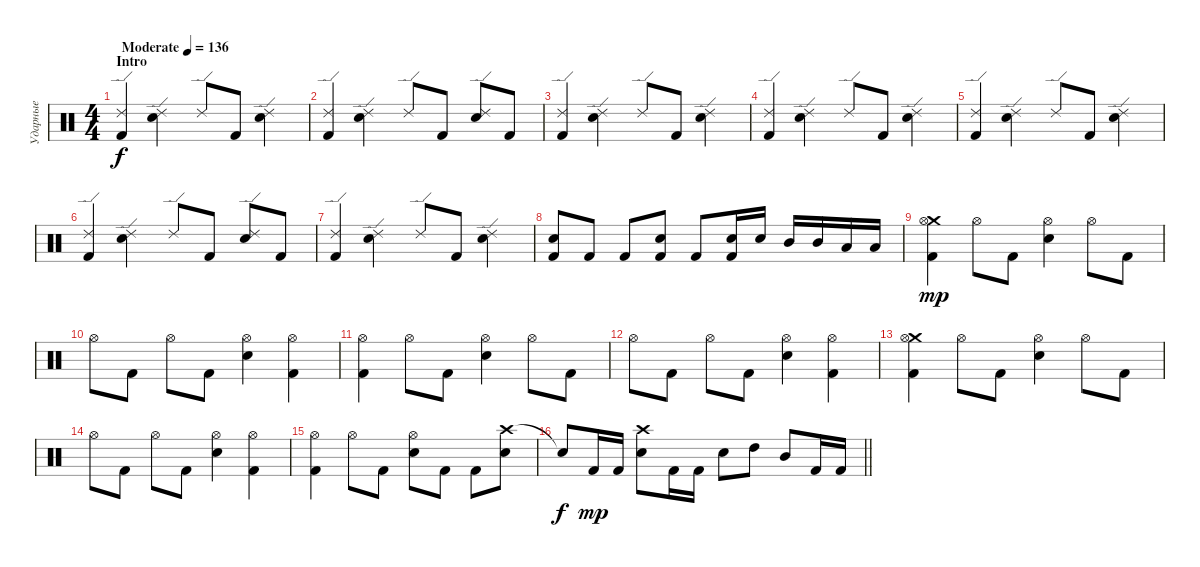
\track ("Ударные" "Ударные") {instrument percussion}
\staff {score}
\articulation defaults
\ts (4 4)
\section ("" "Intro")
\tempo (136 "Moderate")
\clef neutral
\ks c
("Ride (edge) 2" "Kick (hit) 2").4{dy f} ("Ride (edge) 2" "Electric Snare (hit)").4 "Ride (edge) 2".8 "Kick (hit) 2".8 ("Ride (edge) 2" "Electric Snare (hit)").4 |
("Ride (edge) 2" "Kick (hit) 2").4 ("Ride (edge) 2" "Electric Snare (hit)").4 "Ride (edge) 2".8 "Kick (hit) 2".8 ("Ride (edge) 2" "Electric Snare (hit)").8 "Kick (hit) 2".8 |
("Ride (edge) 2" "Kick (hit) 2").4 ("Ride (edge) 2" "Electric Snare (hit)").4 "Ride (edge) 2".8 "Kick (hit) 2".8 ("Ride (edge) 2" "Electric Snare (hit)").4 |
("Ride (edge) 2" "Kick (hit) 2").4 ("Ride (edge) 2" "Electric Snare (hit)").4 "Ride (edge) 2".8 "Kick (hit) 2".8 ("Ride (edge) 2" "Electric Snare (hit)").4 |
("Ride (edge) 2" "Kick (hit) 2").4 ("Ride (edge) 2" "Electric Snare (hit)").4 "Ride (edge) 2".8 "Kick (hit) 2".8 ("Ride (edge) 2" "Electric Snare (hit)").4 |
("Ride (edge) 2" "Kick (hit) 2").4 ("Ride (edge) 2" "Electric Snare (hit)").4 "Ride (edge) 2".8 "Kick (hit) 2".8 ("Ride (edge) 2" "Electric Snare (hit)").8 "Kick (hit) 2".8 |
("Ride (edge) 2" "Kick (hit) 2").4 ("Ride (edge) 2" "Electric Snare (hit)").4 "Ride (edge) 2".8 "Kick (hit) 2".8 ("Ride (edge) 2" "Electric Snare (hit)").4 |
("Snare (hit) 2" "Kick (hit) 2").8 "Kick (hit) 2".8 "Kick (hit) 2".8 ("Snare (hit) 2" "Kick (hit) 2").8 "Kick (hit) 2".8 ("Snare (hit) 2" "Kick (hit) 2").16 "Snare (hit) 2".16 "Mid Tom (hit)".16 "Mid Tom (hit)".16 "Low Tom (hit)".16 "Low Tom (hit)".16 |
("Kick (hit) 2" "Crash medium (hit)" "Hi-Hat (open)").4{dy mp} "Hi-Hat (open)".8 "Kick (hit) 2".8 ("Snare (hit) 2" "Hi-Hat (open)").4 "Hi-Hat (open)".8 "Kick (hit) 2".8 |
"Hi-Hat (open)".8 "Kick (hit) 2".8 "Hi-Hat (open)".8 "Kick (hit) 2".8 ("Snare (hit) 2" "Hi-Hat (open)").4 ("Kick (hit) 2" "Hi-Hat (open)").4 |
("Kick (hit) 2" "Hi-Hat (open)").4 "Hi-Hat (open)".8 "Kick (hit) 2".8 ("Snare (hit) 2" "Hi-Hat (open)").4 "Hi-Hat (open)".8 "Kick (hit) 2".8 |
"Hi-Hat (open)".8 "Kick (hit) 2".8 "Hi-Hat (open)".8 "Kick (hit) 2".8 ("Snare (hit) 2" "Hi-Hat (open)").4 ("Kick (hit) 2" "Hi-Hat (open)").4 |
("Kick (hit) 2" "Crash medium (hit)" "Hi-Hat (open)").4 "Hi-Hat (open)".8 "Kick (hit) 2".8 ("Snare (hit) 2" "Hi-Hat (open)").4 "Hi-Hat (open)".8 "Kick (hit) 2".8 |
"Hi-Hat (open)".8 "Kick (hit) 2".8 "Hi-Hat (open)".8 "Kick (hit) 2".8 ("Snare (hit) 2" "Hi-Hat (open)").4 ("Kick (hit) 2" "Hi-Hat (open)").4 |
("Kick (hit) 2" "Hi-Hat (open)").4 "Hi-Hat (open)".8 "Kick (hit) 2".8 ("Snare (hit) 2" "Hi-Hat (open)").8 "Kick (hit) 2".8 "Kick (hit) 2".8 ("Crash high (hit)" "Snare (hit) 2").8 |
\barLineRight lightlight "Snare (hit) 2"{t}.8{dy f} "Kick (hit) 2".16{dy mp} "Kick (hit) 2".16
("Crash high (hit)" "Snare (hit) 2").8 "Kick (hit) 2".16 "Kick (hit) 2".16 "Snare (hit) 2".8 "High Tom (hit)".8 "Mid Tom (hit)".8 "Kick (hit) 2".16 "Kick (hit) 2".16
